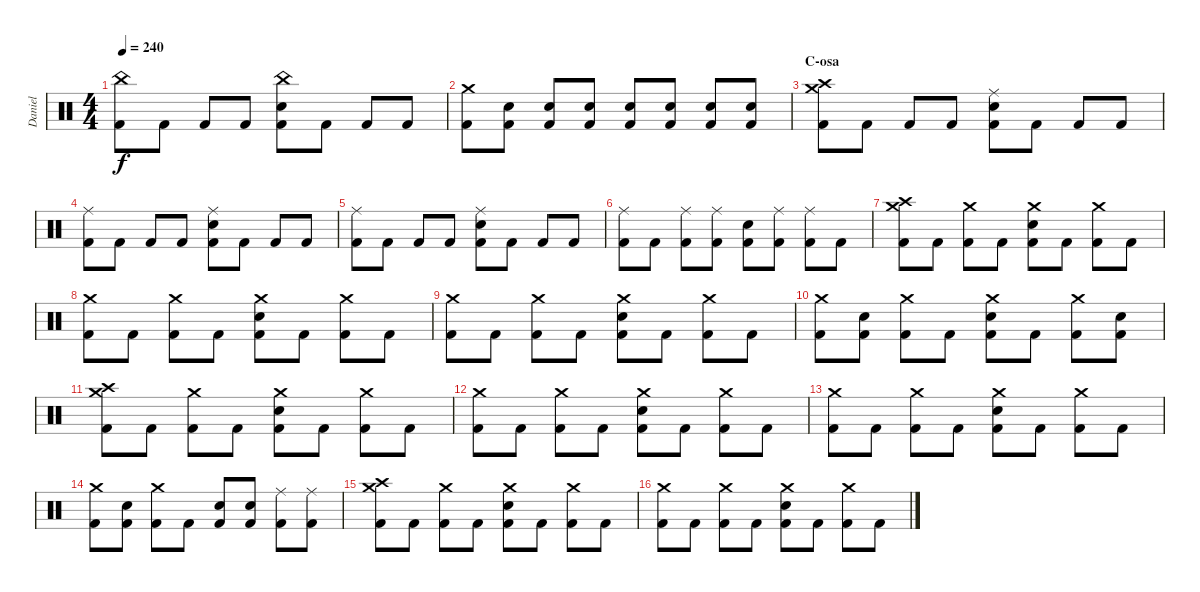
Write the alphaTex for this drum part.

\track ("Daniel" "Daniel") {instrument percussion}
\staff {score}
\articulation defaults
\ts (4 4)
\tempo 240
\clef neutral
\ks c
("China (hit)" "Kick (hit) 2").8{dy f} "Kick (hit) 2".8 "Kick (hit) 2".8 "Kick (hit) 2".8 ("China (hit)" "Electric Snare (hit)" "Kick (hit) 2").8 "Kick (hit) 2".8 "Kick (hit) 2".8 "Kick (hit) 2".8 |
("Crash medium (hit)" "Kick (hit) 2").8 ("Electric Snare (hit)" "Kick (hit) 2").8 ("Electric Snare (hit)" "Kick (hit) 2").8 ("Electric Snare (hit)" "Kick (hit) 2").8 ("Electric Snare (hit)" "Kick (hit) 2").8 ("Electric Snare (hit)" "Kick (hit) 2").8 ("Electric Snare (hit)" "Kick (hit) 2").8 ("Electric Snare (hit)" "Kick (hit) 2").8 |
\section ("" "C-osa")
("Crash high (hit)" "Crash medium (hit)" "Kick (hit) 2").8 "Kick (hit) 2".8 "Kick (hit) 2".8 "Kick (hit) 2".8 ("Ride (middle)" "Electric Snare (hit)" "Kick (hit) 2").8 "Kick (hit) 2".8 "Kick (hit) 2".8 "Kick (hit) 2".8 |
("Ride (middle)" "Kick (hit) 2").8 "Kick (hit) 2".8 "Kick (hit) 2".8 "Kick (hit) 2".8 ("Ride (middle)" "Electric Snare (hit)" "Kick (hit) 2").8 "Kick (hit) 2".8 "Kick (hit) 2".8 "Kick (hit) 2".8 |
("Ride (middle)" "Kick (hit) 2").8 "Kick (hit) 2".8 "Kick (hit) 2".8 "Kick (hit) 2".8 ("Ride (middle)" "Electric Snare (hit)" "Kick (hit) 2").8 "Kick (hit) 2".8 "Kick (hit) 2".8 "Kick (hit) 2".8 |
("Ride (middle)" "Kick (hit) 2").8 "Kick (hit) 2".8 ("Ride (middle)" "Kick (hit) 2").8 ("Ride (middle)" "Kick (hit) 2").8 ("Electric Snare (hit)" "Kick (hit) 2").8 ("Ride (middle)" "Kick (hit) 2").8 ("Ride (middle)" "Kick (hit) 2").8 "Kick (hit) 2".8 |
("Crash medium (hit)" "Crash high (hit)" "Kick (hit) 2").8 "Kick (hit) 2".8 ("Crash medium (hit)" "Kick (hit) 2").8 "Kick (hit) 2".8 ("Crash medium (hit)" "Electric Snare (hit)" "Kick (hit) 2").8 "Kick (hit) 2".8 ("Crash medium (hit)" "Kick (hit) 2").8 "Kick (hit) 2".8 |
("Crash medium (hit)" "Kick (hit) 2").8 "Kick (hit) 2".8 ("Crash medium (hit)" "Kick (hit) 2").8 "Kick (hit) 2".8 ("Crash medium (hit)" "Electric Snare (hit)" "Kick (hit) 2").8 "Kick (hit) 2".8 ("Crash medium (hit)" "Kick (hit) 2").8 "Kick (hit) 2".8 |
("Crash medium (hit)" "Kick (hit) 2").8 "Kick (hit) 2".8 ("Crash medium (hit)" "Kick (hit) 2").8 "Kick (hit) 2".8 ("Crash medium (hit)" "Electric Snare (hit)" "Kick (hit) 2").8 "Kick (hit) 2".8 ("Crash medium (hit)" "Kick (hit) 2").8 "Kick (hit) 2".8 |
("Crash medium (hit)" "Kick (hit) 2").8 ("Electric Snare (hit)" "Kick (hit) 2").8 ("Crash medium (hit)" "Kick (hit) 2").8 "Kick (hit) 2".8 ("Crash medium (hit)" "Electric Snare (hit)" "Kick (hit) 2").8 "Kick (hit) 2".8 ("Crash medium (hit)" "Kick (hit) 2").8 ("Electric Snare (hit)" "Kick (hit) 2").8 |
("Crash medium (hit)" "Crash high (hit)" "Kick (hit) 2").8 "Kick (hit) 2".8 ("Crash medium (hit)" "Kick (hit) 2").8 "Kick (hit) 2".8 ("Crash medium (hit)" "Electric Snare (hit)" "Kick (hit) 2").8 "Kick (hit) 2".8 ("Crash medium (hit)" "Kick (hit) 2").8 "Kick (hit) 2".8 |
("Crash medium (hit)" "Kick (hit) 2").8 "Kick (hit) 2".8 ("Crash medium (hit)" "Kick (hit) 2").8 "Kick (hit) 2".8 ("Crash medium (hit)" "Electric Snare (hit)" "Kick (hit) 2").8 "Kick (hit) 2".8 ("Crash medium (hit)" "Kick (hit) 2").8 "Kick (hit) 2".8 |
("Crash medium (hit)" "Kick (hit) 2").8 "Kick (hit) 2".8 ("Crash medium (hit)" "Kick (hit) 2").8 "Kick (hit) 2".8 ("Crash medium (hit)" "Electric Snare (hit)" "Kick (hit) 2").8 "Kick (hit) 2".8 ("Crash medium (hit)" "Kick (hit) 2").8 "Kick (hit) 2".8 |
("Crash medium (hit)" "Kick (hit) 2").8 ("Electric Snare (hit)" "Kick (hit) 2").8 ("Crash medium (hit)" "Kick (hit) 2").8 "Kick (hit) 2".8 ("Electric Snare (hit)" "Kick (hit) 2").8 ("Electric Snare (hit)" "Kick (hit) 2").8 ("Ride (middle)" "Kick (hit) 2").8 ("Ride (middle)" "Kick (hit) 2").8 |
("Crash medium (hit)" "Crash high (hit)" "Kick (hit) 2").8 "Kick (hit) 2".8 ("Crash medium (hit)" "Kick (hit) 2").8 "Kick (hit) 2".8 ("Crash medium (hit)" "Electric Snare (hit)" "Kick (hit) 2").8 "Kick (hit) 2".8 ("Crash medium (hit)" "Kick (hit) 2").8 "Kick (hit) 2".8 |
("Crash medium (hit)" "Kick (hit) 2").8 "Kick (hit) 2".8 ("Crash medium (hit)" "Kick (hit) 2").8 "Kick (hit) 2".8 ("Crash medium (hit)" "Electric Snare (hit)" "Kick (hit) 2").8 "Kick (hit) 2".8 ("Crash medium (hit)" "Kick (hit) 2").8 "Kick (hit) 2".8
